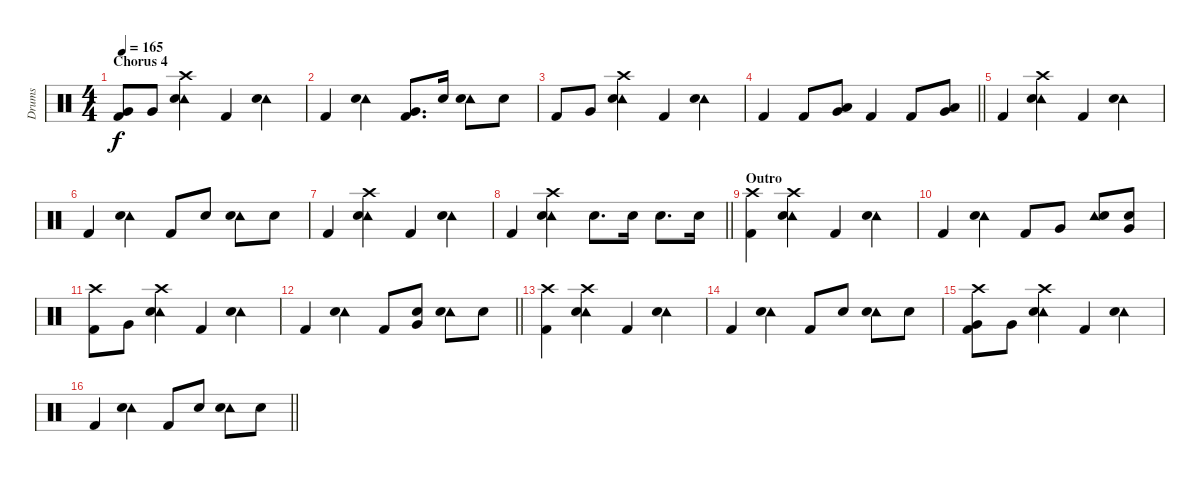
\track ("Drums" "Drums") {instrument percussion}
\staff {score}
\articulation defaults
\ts (4 4)
\section ("" "Chorus 4")
\tempo 165
\clef neutral
\ks c
("Very Low Tom (hit)" "Kick (hit) 2").8{dy f} "Very Low Tom (hit)".8 ("Crash high (hit)" "Tambourine (hit)" "Snare (hit) 2").4 "Kick (hit) 2".4 ("Tambourine (hit)" "Snare (hit) 2").4 |
"Kick (hit) 2".4 ("Tambourine (hit)" "Snare (hit) 2").4 ("Very Low Tom (hit)" "Kick (hit) 2").8{d} "Snare (hit) 2".16 ("Tambourine (hit)" "Snare (hit) 2").8 "Snare (hit) 2".8 |
"Kick (hit) 2".8 "Very Low Tom (hit)".8 ("Crash high (hit)" "Tambourine (hit)" "Snare (hit) 2").4 "Kick (hit) 2".4 ("Tambourine (hit)" "Snare (hit) 2").4 |
\barLineRight lightlight "Kick (hit) 2".4 "Kick (hit) 2".8
("Low Tom (hit)" "Very Low Tom (hit)").8 "Kick (hit) 2".4 "Kick (hit) 2".8 ("Low Tom (hit)" "Very Low Tom (hit)").8 |
"Kick (hit) 2".4 ("Crash high (hit)" "Tambourine (hit)" "Snare (hit) 2").4 "Kick (hit) 2".4 ("Tambourine (hit)" "Snare (hit) 2").4 |
"Kick (hit) 2".4 ("Tambourine (hit)" "Snare (hit) 2").4 "Kick (hit) 2".8 "Snare (hit) 2".8 ("Tambourine (hit)" "Snare (hit) 2").8 "Snare (hit) 2".8 |
"Kick (hit) 2".4 ("Crash high (hit)" "Tambourine (hit)" "Snare (hit) 2").4 "Kick (hit) 2".4 ("Tambourine (hit)" "Snare (hit) 2").4 |
\barLineRight lightlight "Kick (hit) 2".4
("Crash high (hit)" "Tambourine (hit)" "Snare (hit) 2").4 "Snare (hit) 2".8{d} "Snare (hit) 2".16 "Snare (hit) 2".8{d} "Snare (hit) 2".16 |
\section ("" "Outro")
("Crash high (hit)" "Kick (hit) 2").4 ("Crash high (hit)" "Tambourine (hit)" "Snare (hit) 2").4 "Kick (hit) 2".4 ("Tambourine (hit)" "Snare (hit) 2").4 |
"Kick (hit) 2".4 ("Tambourine (hit)" "Snare (hit) 2").4 "Kick (hit) 2".8 "Very Low Tom (hit)".8 ("Tambourine (hit)" "Snare (hit) 2").8 ("Snare (hit) 2" "Very Low Tom (hit)").8 |
("Crash high (hit)" "Kick (hit) 2").8 "Very Low Tom (hit)".8 ("Crash high (hit)" "Tambourine (hit)" "Snare (hit) 2").4 "Kick (hit) 2".4 ("Tambourine (hit)" "Snare (hit) 2").4 |
\barLineRight lightlight "Kick (hit) 2".4
("Tambourine (hit)" "Snare (hit) 2").4 "Kick (hit) 2".8 ("Snare (hit) 2" "Very Low Tom (hit)").8 ("Tambourine (hit)" "Snare (hit) 2").8 "Snare (hit) 2".8 |
("Crash high (hit)" "Kick (hit) 2").4 ("Crash high (hit)" "Tambourine (hit)" "Snare (hit) 2").4 "Kick (hit) 2".4 ("Tambourine (hit)" "Snare (hit) 2").4 |
"Kick (hit) 2".4 ("Tambourine (hit)" "Snare (hit) 2").4 "Kick (hit) 2".8 "Snare (hit) 2".8 ("Tambourine (hit)" "Snare (hit) 2").8 "Snare (hit) 2".8 |
("Crash high (hit)" "Very Low Tom (hit)" "Kick (hit) 2").8 "Very Low Tom (hit)".8 ("Crash high (hit)" "Tambourine (hit)" "Snare (hit) 2").4 "Kick (hit) 2".4 ("Tambourine (hit)" "Snare (hit) 2").4 |
\barLineRight lightlight "Kick (hit) 2".4
("Tambourine (hit)" "Snare (hit) 2").4 "Kick (hit) 2".8 "Snare (hit) 2".8 ("Tambourine (hit)" "Snare (hit) 2").8 "Snare (hit) 2".8
